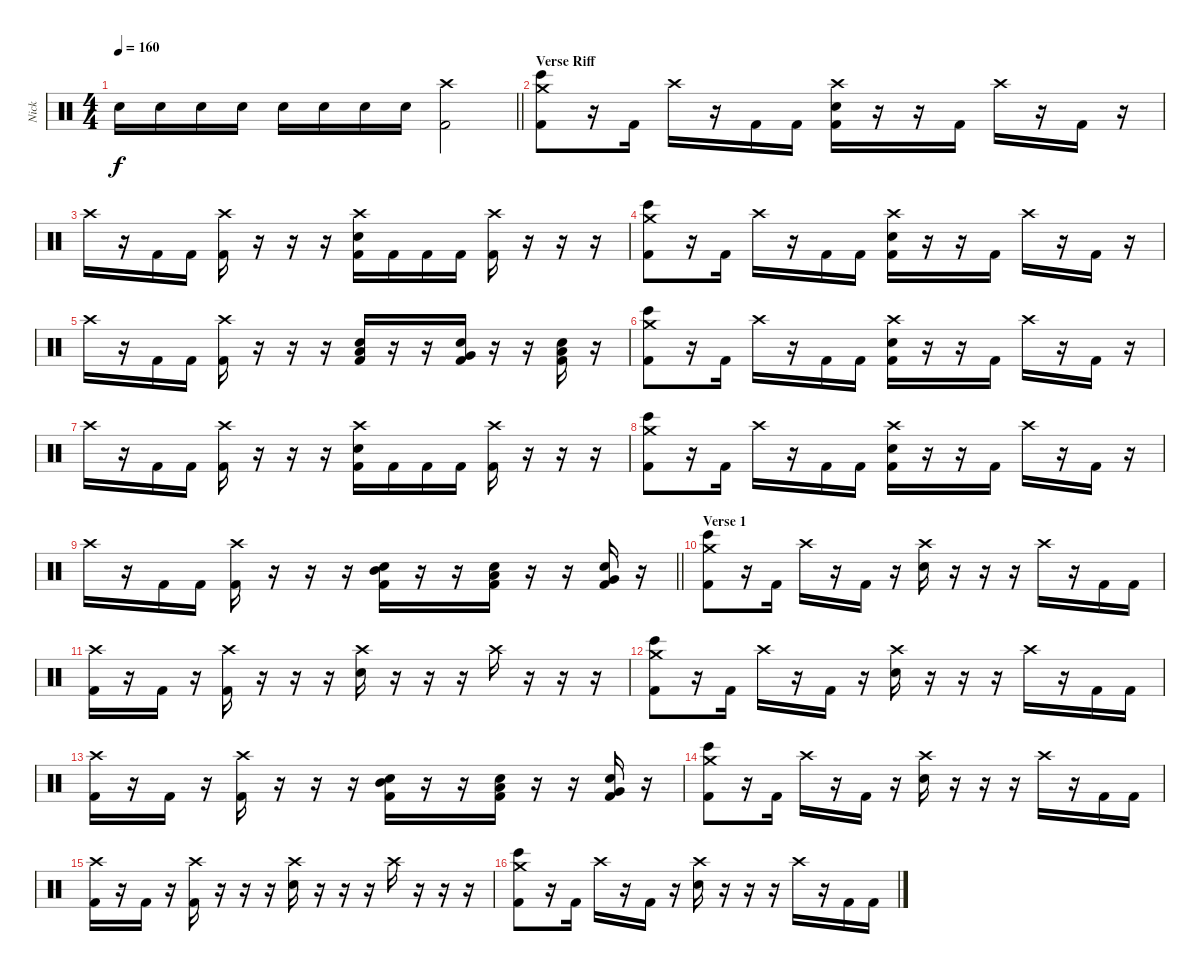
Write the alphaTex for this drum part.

\track ("Nick" "Nick") {instrument percussion}
\staff {score}
\articulation defaults
\ts (4 4)
\tempo 160
\clef neutral
\barLineRight lightlight
\ks c "Electric Snare (hit)".16{dy f} "Electric Snare (hit)".16 "Electric Snare (hit)".16 "Electric Snare (hit)".16 "Electric Snare (hit)".16 "Electric Snare (hit)".16 "Electric Snare (hit)".16 "Electric Snare (hit)".16
("Kick (hit) 2" "Crash high (hit)").2 |
\section ("" "Verse Riff")
("Kick (hit) 2" "Bongo High (hit)" "Crash medium (hit)").8 r.16 "Kick (hit) 2".16 "Crash high (hit)".16 r.16 "Kick (hit) 2".16 "Kick (hit) 2".16 ("Kick (hit) 2" "Electric Snare (hit)" "Crash high (hit)").16 r.16 r.16 "Kick (hit) 2".16 "Crash high (hit)".16 r.16 "Kick (hit) 2".16 r.16 |
"Crash high (hit)".16 r.16 "Kick (hit) 2".16 "Kick (hit) 2".16 ("Kick (hit) 2" "Crash high (hit)").16 r.16 r.16 r.16 ("Kick (hit) 2" "Electric Snare (hit)" "Crash high (hit)").16 "Kick (hit) 2".16 "Kick (hit) 2".16 "Kick (hit) 2".16 ("Kick (hit) 2" "Crash high (hit)").16 r.16 r.16 r.16 |
("Kick (hit) 2" "Bongo High (hit)" "Crash medium (hit)").8 r.16 "Kick (hit) 2".16 "Crash high (hit)".16 r.16 "Kick (hit) 2".16 "Kick (hit) 2".16 ("Kick (hit) 2" "Electric Snare (hit)" "Crash high (hit)").16 r.16 r.16 "Kick (hit) 2".16 "Crash high (hit)".16 r.16 "Kick (hit) 2".16 r.16 |
"Crash high (hit)".16 r.16 "Kick (hit) 2".16 "Kick (hit) 2".16 ("Kick (hit) 2" "Crash high (hit)").16 r.16 r.16 r.16 ("Kick (hit) 2" "Electric Snare (hit)" "Low Floor Tom (hit)").16 r.16 r.16 ("Kick (hit) 2" "Electric Snare (hit)" "Very Low Tom (hit)").16 r.16 r.16 ("Kick (hit) 2" "Electric Snare (hit)" "Low Tom (hit)").16 r.16 |
("Kick (hit) 2" "Bongo High (hit)" "Crash medium (hit)").8 r.16 "Kick (hit) 2".16 "Crash high (hit)".16 r.16 "Kick (hit) 2".16 "Kick (hit) 2".16 ("Kick (hit) 2" "Electric Snare (hit)" "Crash high (hit)").16 r.16 r.16 "Kick (hit) 2".16 "Crash high (hit)".16 r.16 "Kick (hit) 2".16 r.16 |
"Crash high (hit)".16 r.16 "Kick (hit) 2".16 "Kick (hit) 2".16 ("Kick (hit) 2" "Crash high (hit)").16 r.16 r.16 r.16 ("Kick (hit) 2" "Electric Snare (hit)" "Crash high (hit)").16 "Kick (hit) 2".16 "Kick (hit) 2".16 "Kick (hit) 2".16 ("Kick (hit) 2" "Crash high (hit)").16 r.16 r.16 r.16 |
("Kick (hit) 2" "Bongo High (hit)" "Crash medium (hit)").8 r.16 "Kick (hit) 2".16 "Crash high (hit)".16 r.16 "Kick (hit) 2".16 "Kick (hit) 2".16 ("Kick (hit) 2" "Electric Snare (hit)" "Crash high (hit)").16 r.16 r.16 "Kick (hit) 2".16 "Crash high (hit)".16 r.16 "Kick (hit) 2".16 r.16 |
\barLineRight lightlight "Crash high (hit)".16
r.16 "Kick (hit) 2".16 "Kick (hit) 2".16 ("Kick (hit) 2" "Crash high (hit)").16 r.16 r.16 r.16 ("Kick (hit) 2" "Electric Snare (hit)" "Mid Tom (hit)").16 r.16 r.16 ("Kick (hit) 2" "Electric Snare (hit)" "Low Tom (hit)").16 r.16 r.16 ("Kick (hit) 2" "Electric Snare (hit)" "Very Low Tom (hit)").16 r.16 |
\section ("" "Verse 1")
("Kick (hit) 2" "Bongo High (hit)" "Crash medium (hit)").8 r.16 "Kick (hit) 2".16 "Crash high (hit)".16 r.16 "Kick (hit) 2".16 r.16 ("Electric Snare (hit)" "Crash high (hit)").16 r.16 r.16 r.16 "Crash high (hit)".16 r.16 "Kick (hit) 2".16 "Kick (hit) 2".16 |
("Kick (hit) 2" "Crash high (hit)").16 r.16 "Kick (hit) 2".16 r.16 ("Kick (hit) 2" "Crash high (hit)").16 r.16 r.16 r.16 ("Electric Snare (hit)" "Crash high (hit)").16 r.16 r.16 r.16 "Crash high (hit)".16 r.16 r.16 r.16 |
("Kick (hit) 2" "Bongo High (hit)" "Crash medium (hit)").8 r.16 "Kick (hit) 2".16 "Crash high (hit)".16 r.16 "Kick (hit) 2".16 r.16 ("Electric Snare (hit)" "Crash high (hit)").16 r.16 r.16 r.16 "Crash high (hit)".16 r.16 "Kick (hit) 2".16 "Kick (hit) 2".16 |
("Kick (hit) 2" "Crash high (hit)").16 r.16 "Kick (hit) 2".16 r.16 ("Kick (hit) 2" "Crash high (hit)").16 r.16 r.16 r.16 ("Kick (hit) 2" "Electric Snare (hit)" "Mid Tom (hit)").16 r.16 r.16 ("Kick (hit) 2" "Electric Snare (hit)" "Low Tom (hit)").16 r.16 r.16 ("Kick (hit) 2" "Electric Snare (hit)" "Very Low Tom (hit)").16 r.16 |
("Kick (hit) 2" "Bongo High (hit)" "Crash medium (hit)").8 r.16 "Kick (hit) 2".16 "Crash high (hit)".16 r.16 "Kick (hit) 2".16 r.16 ("Electric Snare (hit)" "Crash high (hit)").16 r.16 r.16 r.16 "Crash high (hit)".16 r.16 "Kick (hit) 2".16 "Kick (hit) 2".16 |
("Kick (hit) 2" "Crash high (hit)").16 r.16 "Kick (hit) 2".16 r.16 ("Kick (hit) 2" "Crash high (hit)").16 r.16 r.16 r.16 ("Electric Snare (hit)" "Crash high (hit)").16 r.16 r.16 r.16 "Crash high (hit)".16 r.16 r.16 r.16 |
("Kick (hit) 2" "Bongo High (hit)" "Crash medium (hit)").8 r.16 "Kick (hit) 2".16 "Crash high (hit)".16 r.16 "Kick (hit) 2".16 r.16 ("Electric Snare (hit)" "Crash high (hit)").16 r.16 r.16 r.16 "Crash high (hit)".16 r.16 "Kick (hit) 2".16 "Kick (hit) 2".16
